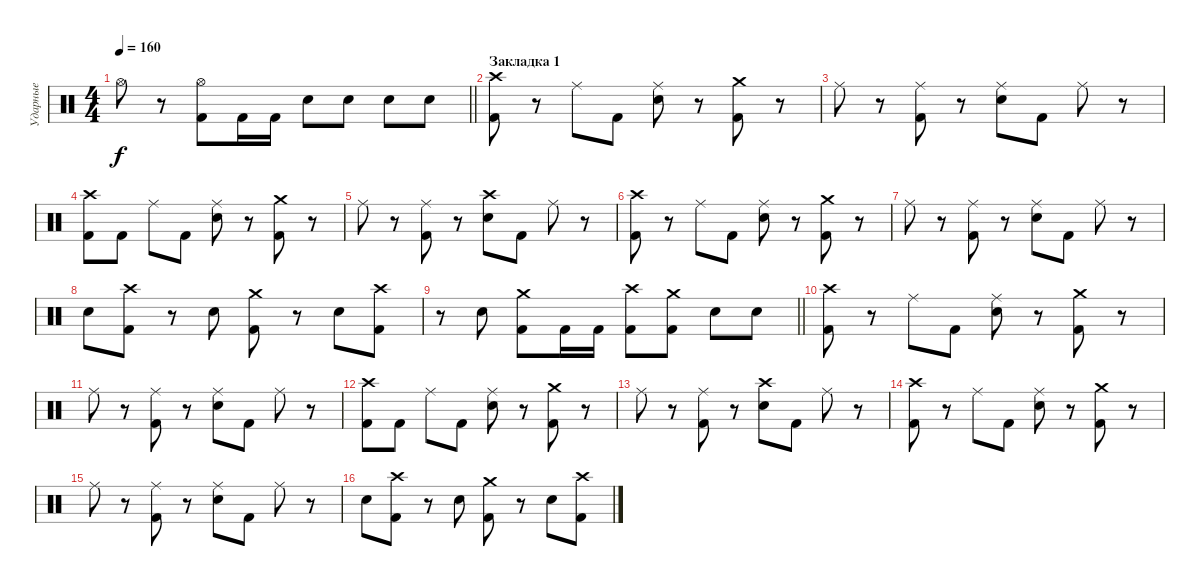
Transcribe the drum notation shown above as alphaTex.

\track ("Ударные" "Ударные") {instrument percussion}
\staff {score}
\articulation defaults
\ts (4 4)
\tempo 160
\clef neutral
\barLineRight lightlight
\ks c "Hi-Hat (open)".8{dy f}
r.8 ("Hi-Hat (open)" "Kick (hit) 2").8 "Kick (hit) 2".16 "Kick (hit) 2".16 "Snare (hit) 2".8 "Snare (hit) 2".8 "Snare (hit) 2".8 "Snare (hit) 2".8 |
\section ("" "Закладка 1")
("Crash high (hit)" "Kick (hit) 2").8 r.8 "Ride (middle)".8 "Kick (hit) 2".8 ("Ride (middle)" "Snare (hit) 2").8 r.8 ("Crash medium (hit)" "Kick (hit) 2").8 r.8 |
"Ride (middle)".8 r.8 ("Ride (middle)" "Kick (hit) 2").8 r.8 ("Ride (middle)" "Snare (hit) 2").8 "Kick (hit) 2".8 "Ride (middle)".8 r.8 |
("Crash high (hit)" "Kick (hit) 2").8 "Kick (hit) 2".8 "Ride (middle)".8 "Kick (hit) 2".8 ("Ride (middle)" "Snare (hit) 2").8 r.8 ("Crash medium (hit)" "Kick (hit) 2").8 r.8 |
"Ride (middle)".8 r.8 ("Ride (middle)" "Kick (hit) 2").8 r.8 ("Crash high (hit)" "Snare (hit) 2").8 "Kick (hit) 2".8 "Ride (middle)".8 r.8 |
("Crash high (hit)" "Kick (hit) 2").8 r.8 "Ride (middle)".8 "Kick (hit) 2".8 ("Ride (middle)" "Snare (hit) 2").8 r.8 ("Crash medium (hit)" "Kick (hit) 2").8 r.8 |
"Ride (middle)".8 r.8 ("Ride (middle)" "Kick (hit) 2").8 r.8 ("Ride (middle)" "Snare (hit) 2").8 "Kick (hit) 2".8 "Ride (middle)".8 r.8 |
"Snare (hit) 2".8 ("Crash high (hit)" "Kick (hit) 2").8 r.8 "Snare (hit) 2".8 ("Crash medium (hit)" "Kick (hit) 2").8 r.8 "Snare (hit) 2".8 ("Crash high (hit)" "Kick (hit) 2").8 |
\barLineRight lightlight
r.8 "Snare (hit) 2".8 ("Crash medium (hit)" "Kick (hit) 2").8 "Kick (hit) 2".16 "Kick (hit) 2".16 ("Crash high (hit)" "Kick (hit) 2").8 ("Crash medium (hit)" "Kick (hit) 2").8 "Snare (hit) 2".8 "Snare (hit) 2".8 |
("Crash high (hit)" "Kick (hit) 2").8 r.8 "Ride (middle)".8 "Kick (hit) 2".8 ("Ride (middle)" "Snare (hit) 2").8 r.8 ("Crash medium (hit)" "Kick (hit) 2").8 r.8 |
"Ride (middle)".8 r.8 ("Ride (middle)" "Kick (hit) 2").8 r.8 ("Ride (middle)" "Snare (hit) 2").8 "Kick (hit) 2".8 "Ride (middle)".8 r.8 |
("Crash high (hit)" "Kick (hit) 2").8 "Kick (hit) 2".8 "Ride (middle)".8 "Kick (hit) 2".8 ("Ride (middle)" "Snare (hit) 2").8 r.8 ("Crash medium (hit)" "Kick (hit) 2").8 r.8 |
"Ride (middle)".8 r.8 ("Ride (middle)" "Kick (hit) 2").8 r.8 ("Crash high (hit)" "Snare (hit) 2").8 "Kick (hit) 2".8 "Ride (middle)".8 r.8 |
("Crash high (hit)" "Kick (hit) 2").8 r.8 "Ride (middle)".8 "Kick (hit) 2".8 ("Ride (middle)" "Snare (hit) 2").8 r.8 ("Crash medium (hit)" "Kick (hit) 2").8 r.8 |
"Ride (middle)".8 r.8 ("Ride (middle)" "Kick (hit) 2").8 r.8 ("Ride (middle)" "Snare (hit) 2").8 "Kick (hit) 2".8 "Ride (middle)".8 r.8 |
"Snare (hit) 2".8 ("Crash high (hit)" "Kick (hit) 2").8 r.8 "Snare (hit) 2".8 ("Crash medium (hit)" "Kick (hit) 2").8 r.8 "Snare (hit) 2".8 ("Crash high (hit)" "Kick (hit) 2").8
